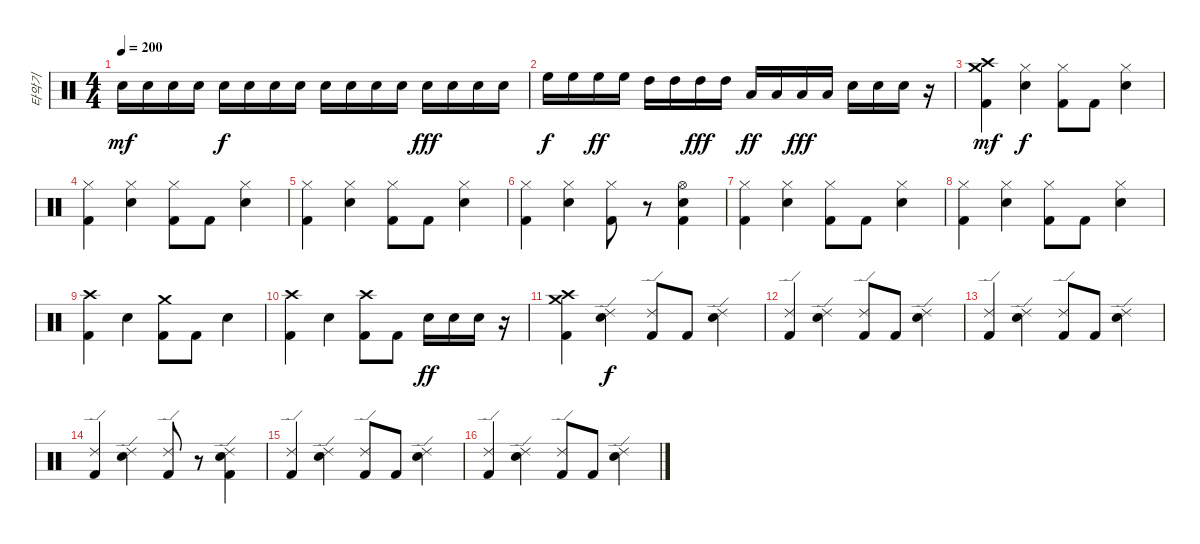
\track ("타악기" "타악기") {instrument percussion}
\staff {score}
\articulation defaults
\ts (4 4)
\tempo 200
\clef neutral
\ks c "Snare (hit) 2".16{dy mf} "Snare (hit) 2".16 "Snare (hit) 2".16 "Snare (hit) 2".16 "Snare (hit) 2".16{dy f} "Snare (hit) 2".16 "Snare (hit) 2".16 "Snare (hit) 2".16 "Snare (hit) 2".16 "Snare (hit) 2".16 "Snare (hit) 2".16 "Snare (hit) 2".16 "Snare (hit) 2".16{dy fff} "Snare (hit) 2".16 "Snare (hit) 2".16 "Snare (hit) 2".16
|
"High Floor Tom (hit)".16{dy f} "High Floor Tom (hit)".16 "High Floor Tom (hit)".16{dy ff} "High Floor Tom (hit)".16 "High Tom (hit)".16 "High Tom (hit)".16 "High Tom (hit)".16{dy fff} "High Tom (hit)".16 "Low Tom (hit)".16{dy ff} "Low Tom (hit)".16 "Low Tom (hit)".16{dy fff} "Low Tom (hit)".16 "Snare (hit) 2".16 "Snare (hit) 2".16 "Snare (hit) 2".16 r.16 |
("Crash high (hit)" "Crash medium (hit)" "Kick (hit) 2").4{dy mf} ("Hi-Hat (closed)" "Snare (hit) 2").4{dy f} ("Hi-Hat (closed)" "Kick (hit) 2").8 "Kick (hit) 2".8 ("Hi-Hat (closed)" "Snare (hit) 2").4 |
("Hi-Hat (closed)" "Kick (hit) 2").4 ("Hi-Hat (closed)" "Snare (hit) 2").4 ("Hi-Hat (closed)" "Kick (hit) 2").8 "Kick (hit) 2".8 ("Hi-Hat (closed)" "Snare (hit) 2").4 |
("Hi-Hat (closed)" "Kick (hit) 2").4 ("Hi-Hat (closed)" "Snare (hit) 2").4 ("Hi-Hat (closed)" "Kick (hit) 2").8 "Kick (hit) 2".8 ("Hi-Hat (closed)" "Snare (hit) 2").4 |
("Hi-Hat (closed)" "Kick (hit) 2").4 ("Hi-Hat (closed)" "Snare (hit) 2").4 ("Hi-Hat (closed)" "Kick (hit) 2").8 r.8 ("Hi-Hat (open)" "Snare (hit) 2" "Kick (hit) 2").4 |
("Hi-Hat (closed)" "Kick (hit) 2").4 ("Hi-Hat (closed)" "Snare (hit) 2").4 ("Hi-Hat (closed)" "Kick (hit) 2").8 "Kick (hit) 2".8 ("Hi-Hat (closed)" "Snare (hit) 2").4 |
("Hi-Hat (closed)" "Kick (hit) 2").4 ("Hi-Hat (closed)" "Snare (hit) 2").4 ("Hi-Hat (closed)" "Kick (hit) 2").8 "Kick (hit) 2".8 ("Hi-Hat (closed)" "Snare (hit) 2").4 |
("Crash high (hit)" "Kick (hit) 2").4 "Snare (hit) 2".4 ("Crash medium (hit)" "Kick (hit) 2").8 "Kick (hit) 2".8 "Snare (hit) 2".4 |
("Crash high (hit)" "Kick (hit) 2").4 "Snare (hit) 2".4 ("Crash high (hit)" "Kick (hit) 2").8 "Kick (hit) 2".8 "Snare (hit) 2".16{dy ff} "Snare (hit) 2".16 "Snare (hit) 2".16 r.16 |
("Crash high (hit)" "Crash medium (hit)" "Kick (hit) 2").4 ("Ride (edge) 2" "Snare (hit) 2").4{dy f} ("Ride (edge) 2" "Kick (hit) 2").8 "Kick (hit) 2".8 ("Ride (edge) 2" "Snare (hit) 2").4 |
("Ride (edge) 2" "Kick (hit) 2").4 ("Ride (edge) 2" "Snare (hit) 2").4 ("Ride (edge) 2" "Kick (hit) 2").8 "Kick (hit) 2".8 ("Ride (edge) 2" "Snare (hit) 2").4 |
("Ride (edge) 2" "Kick (hit) 2").4 ("Ride (edge) 2" "Snare (hit) 2").4 ("Ride (edge) 2" "Kick (hit) 2").8 "Kick (hit) 2".8 ("Ride (edge) 2" "Snare (hit) 2").4 |
("Ride (edge) 2" "Kick (hit) 2").4 ("Ride (edge) 2" "Snare (hit) 2").4 ("Ride (edge) 2" "Kick (hit) 2").8 r.8 ("Ride (edge) 2" "Snare (hit) 2" "Kick (hit) 2").4 |
("Ride (edge) 2" "Kick (hit) 2").4 ("Ride (edge) 2" "Snare (hit) 2").4 ("Ride (edge) 2" "Kick (hit) 2").8 "Kick (hit) 2".8 ("Ride (edge) 2" "Snare (hit) 2").4 |
("Ride (edge) 2" "Kick (hit) 2").4 ("Ride (edge) 2" "Snare (hit) 2").4 ("Ride (edge) 2" "Kick (hit) 2").8 "Kick (hit) 2".8 ("Ride (edge) 2" "Snare (hit) 2").4
